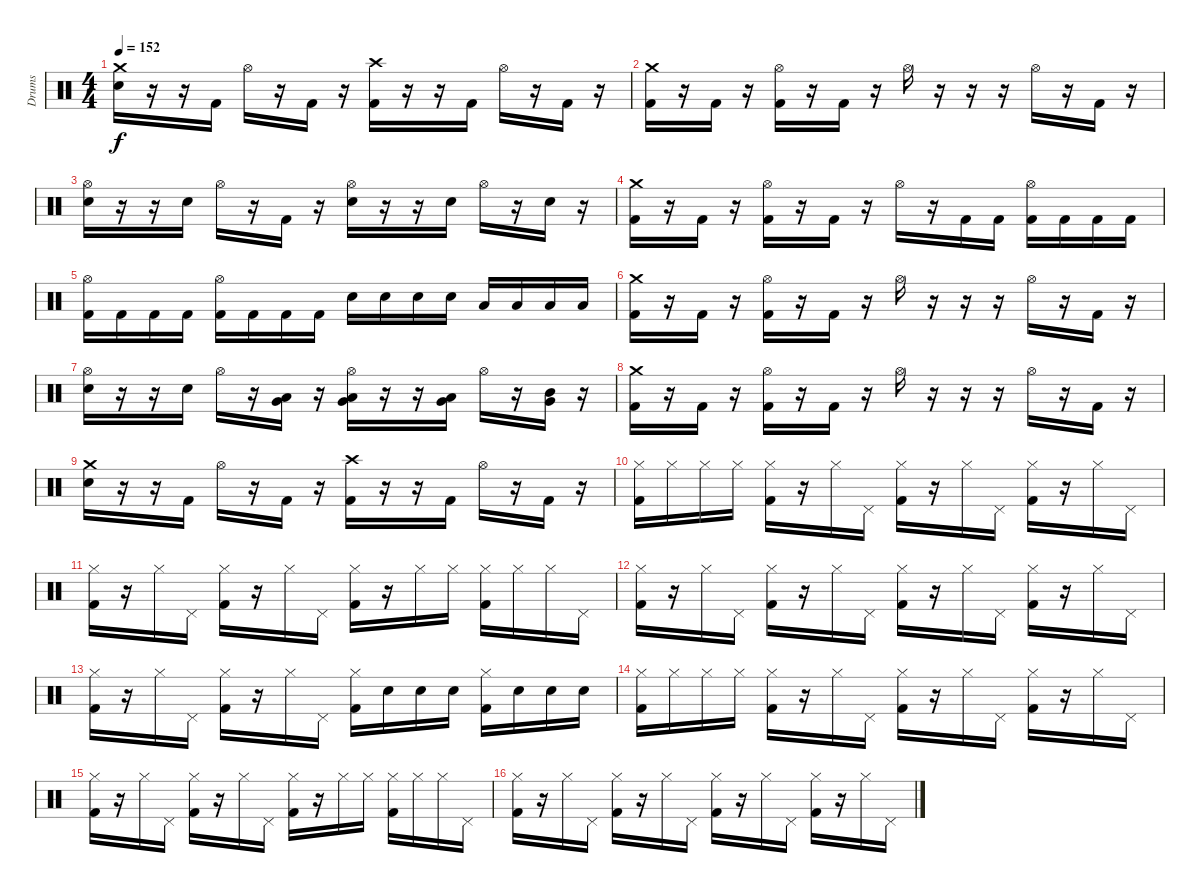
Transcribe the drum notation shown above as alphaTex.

\track ("Drums" "Drums") {instrument percussion}
\staff {score}
\articulation defaults
\ts (4 4)
\tempo 152
\clef neutral
\ks c
("Crash medium (hit)" "Snare (hit) 2").16{dy f} r.16 r.16 "Kick (hit) 2".16 "Hi-Hat (open)".16 r.16 "Kick (hit) 2".16 r.16 ("Crash high (hit)" "Kick (hit) 2").16 r.16 r.16 "Kick (hit) 2".16 "Hi-Hat (open)".16 r.16 "Kick (hit) 2".16 r.16 |
("Crash medium (hit)" "Kick (hit) 2").16 r.16 "Kick (hit) 2".16 r.16 ("Hi-Hat (open)" "Kick (hit) 2").16 r.16 "Kick (hit) 2".16 r.16 "Hi-Hat (open)".16 r.16 r.16 r.16 "Hi-Hat (open)".16 r.16 "Kick (hit) 2".16 r.16 |
("Hi-Hat (open)" "Snare (hit) 2").16 r.16 r.16 "Snare (hit) 2".16 "Hi-Hat (open)".16 r.16 "Kick (hit) 2".16 r.16 ("Hi-Hat (open)" "Snare (hit) 2").16 r.16 r.16 "Snare (hit) 2".16 "Hi-Hat (open)".16 r.16 "Snare (hit) 2".16 r.16 |
("Crash medium (hit)" "Kick (hit) 2").16 r.16 "Kick (hit) 2".16 r.16 ("Hi-Hat (open)" "Kick (hit) 2").16 r.16 "Kick (hit) 2".16 r.16 "Hi-Hat (open)".16 r.16 "Kick (hit) 2".16 "Kick (hit) 2".16 ("Hi-Hat (open)" "Kick (hit) 2").16 "Kick (hit) 2".16 "Kick (hit) 2".16 "Kick (hit) 2".16 |
("Hi-Hat (open)" "Kick (hit) 2").16 "Kick (hit) 2".16 "Kick (hit) 2".16 "Kick (hit) 2".16 ("Hi-Hat (open)" "Kick (hit) 2").16 "Kick (hit) 2".16 "Kick (hit) 2".16 "Kick (hit) 2".16 "Snare (hit) 2".16 "Snare (hit) 2".16 "Snare (hit) 2".16 "Snare (hit) 2".16 "Low Tom (hit)".16 "Low Tom (hit)".16 "Low Tom (hit)".16 "Low Tom (hit)".16 |
("Crash medium (hit)" "Kick (hit) 2").16 r.16 "Kick (hit) 2".16 r.16 ("Hi-Hat (open)" "Kick (hit) 2").16 r.16 "Kick (hit) 2".16 r.16 "Hi-Hat (open)".16 r.16 r.16 r.16 "Hi-Hat (open)".16 r.16 "Kick (hit) 2".16 r.16 |
("Hi-Hat (open)" "Snare (hit) 2").16 r.16 r.16 "Snare (hit) 2".16 "Hi-Hat (open)".16 r.16 ("Low Tom (hit)" "Very Low Tom (hit)").16 r.16 ("Hi-Hat (open)" "Low Tom (hit)" "Very Low Tom (hit)").16 r.16 r.16 ("Low Tom (hit)" "Very Low Tom (hit)").16 "Hi-Hat (open)".16 r.16 ("Mid Tom (hit)" "Very Low Tom (hit)").16 r.16 |
("Crash medium (hit)" "Kick (hit) 2").16 r.16 "Kick (hit) 2".16 r.16 ("Hi-Hat (open)" "Kick (hit) 2").16 r.16 "Kick (hit) 2".16 r.16 "Hi-Hat (open)".16 r.16 r.16 r.16 "Hi-Hat (open)".16 r.16 "Kick (hit) 2".16 r.16 |
("Crash medium (hit)" "Snare (hit) 2").16 r.16 r.16 "Kick (hit) 2".16 "Hi-Hat (open)".16 r.16 "Kick (hit) 2".16 r.16 ("Crash high (hit)" "Kick (hit) 2").16 r.16 r.16 "Kick (hit) 2".16 "Hi-Hat (open)".16 r.16 "Kick (hit) 2".16 r.16 |
("Hi-Hat (closed)" "Kick (hit) 2").16 "Hi-Hat (closed)".16 "Hi-Hat (closed)".16 "Hi-Hat (closed)".16 ("Hi-Hat (closed)" "Kick (hit) 2").16 r.16 "Hi-Hat (closed)".16 "Pedal Hi-Hat (hit)".16 ("Hi-Hat (closed)" "Kick (hit) 2").16 r.16 "Hi-Hat (closed)".16 "Pedal Hi-Hat (hit)".16 ("Hi-Hat (closed)" "Kick (hit) 2").16 r.16 "Hi-Hat (closed)".16 "Pedal Hi-Hat (hit)".16 |
("Hi-Hat (closed)" "Kick (hit) 2").16 r.16 "Hi-Hat (closed)".16 "Pedal Hi-Hat (hit)".16 ("Hi-Hat (closed)" "Kick (hit) 2").16 r.16 "Hi-Hat (closed)".16 "Pedal Hi-Hat (hit)".16 ("Hi-Hat (closed)" "Kick (hit) 2").16 r.16 "Hi-Hat (closed)".16 "Hi-Hat (closed)".16 ("Hi-Hat (closed)" "Kick (hit) 2").16 "Hi-Hat (closed)".16 "Hi-Hat (closed)".16 "Pedal Hi-Hat (hit)".16 |
("Hi-Hat (closed)" "Kick (hit) 2").16 r.16 "Hi-Hat (closed)".16 "Pedal Hi-Hat (hit)".16 ("Hi-Hat (closed)" "Kick (hit) 2").16 r.16 "Hi-Hat (closed)".16 "Pedal Hi-Hat (hit)".16 ("Hi-Hat (closed)" "Kick (hit) 2").16 r.16 "Hi-Hat (closed)".16 "Pedal Hi-Hat (hit)".16 ("Hi-Hat (closed)" "Kick (hit) 2").16 r.16 "Hi-Hat (closed)".16 "Pedal Hi-Hat (hit)".16 |
("Hi-Hat (closed)" "Kick (hit) 2").16 r.16 "Hi-Hat (closed)".16 "Pedal Hi-Hat (hit)".16 ("Hi-Hat (closed)" "Kick (hit) 2").16 r.16 "Hi-Hat (closed)".16 "Pedal Hi-Hat (hit)".16 ("Hi-Hat (closed)" "Kick (hit) 2").16 "Snare (hit) 2".16 "Snare (hit) 2".16 "Snare (hit) 2".16 ("Hi-Hat (closed)" "Kick (hit) 2").16 "Snare (hit) 2".16 "Snare (hit) 2".16 "Snare (hit) 2".16 |
("Hi-Hat (closed)" "Kick (hit) 2").16 "Hi-Hat (closed)".16 "Hi-Hat (closed)".16 "Hi-Hat (closed)".16 ("Hi-Hat (closed)" "Kick (hit) 2").16 r.16 "Hi-Hat (closed)".16 "Pedal Hi-Hat (hit)".16 ("Hi-Hat (closed)" "Kick (hit) 2").16 r.16 "Hi-Hat (closed)".16 "Pedal Hi-Hat (hit)".16 ("Hi-Hat (closed)" "Kick (hit) 2").16 r.16 "Hi-Hat (closed)".16 "Pedal Hi-Hat (hit)".16 |
("Hi-Hat (closed)" "Kick (hit) 2").16 r.16 "Hi-Hat (closed)".16 "Pedal Hi-Hat (hit)".16 ("Hi-Hat (closed)" "Kick (hit) 2").16 r.16 "Hi-Hat (closed)".16 "Pedal Hi-Hat (hit)".16 ("Hi-Hat (closed)" "Kick (hit) 2").16 r.16 "Hi-Hat (closed)".16 "Hi-Hat (closed)".16 ("Hi-Hat (closed)" "Kick (hit) 2").16 "Hi-Hat (closed)".16 "Hi-Hat (closed)".16 "Pedal Hi-Hat (hit)".16 |
("Hi-Hat (closed)" "Kick (hit) 2").16 r.16 "Hi-Hat (closed)".16 "Pedal Hi-Hat (hit)".16 ("Hi-Hat (closed)" "Kick (hit) 2").16 r.16 "Hi-Hat (closed)".16 "Pedal Hi-Hat (hit)".16 ("Hi-Hat (closed)" "Kick (hit) 2").16 r.16 "Hi-Hat (closed)".16 "Pedal Hi-Hat (hit)".16 ("Hi-Hat (closed)" "Kick (hit) 2").16 r.16 "Hi-Hat (closed)".16 "Pedal Hi-Hat (hit)".16
